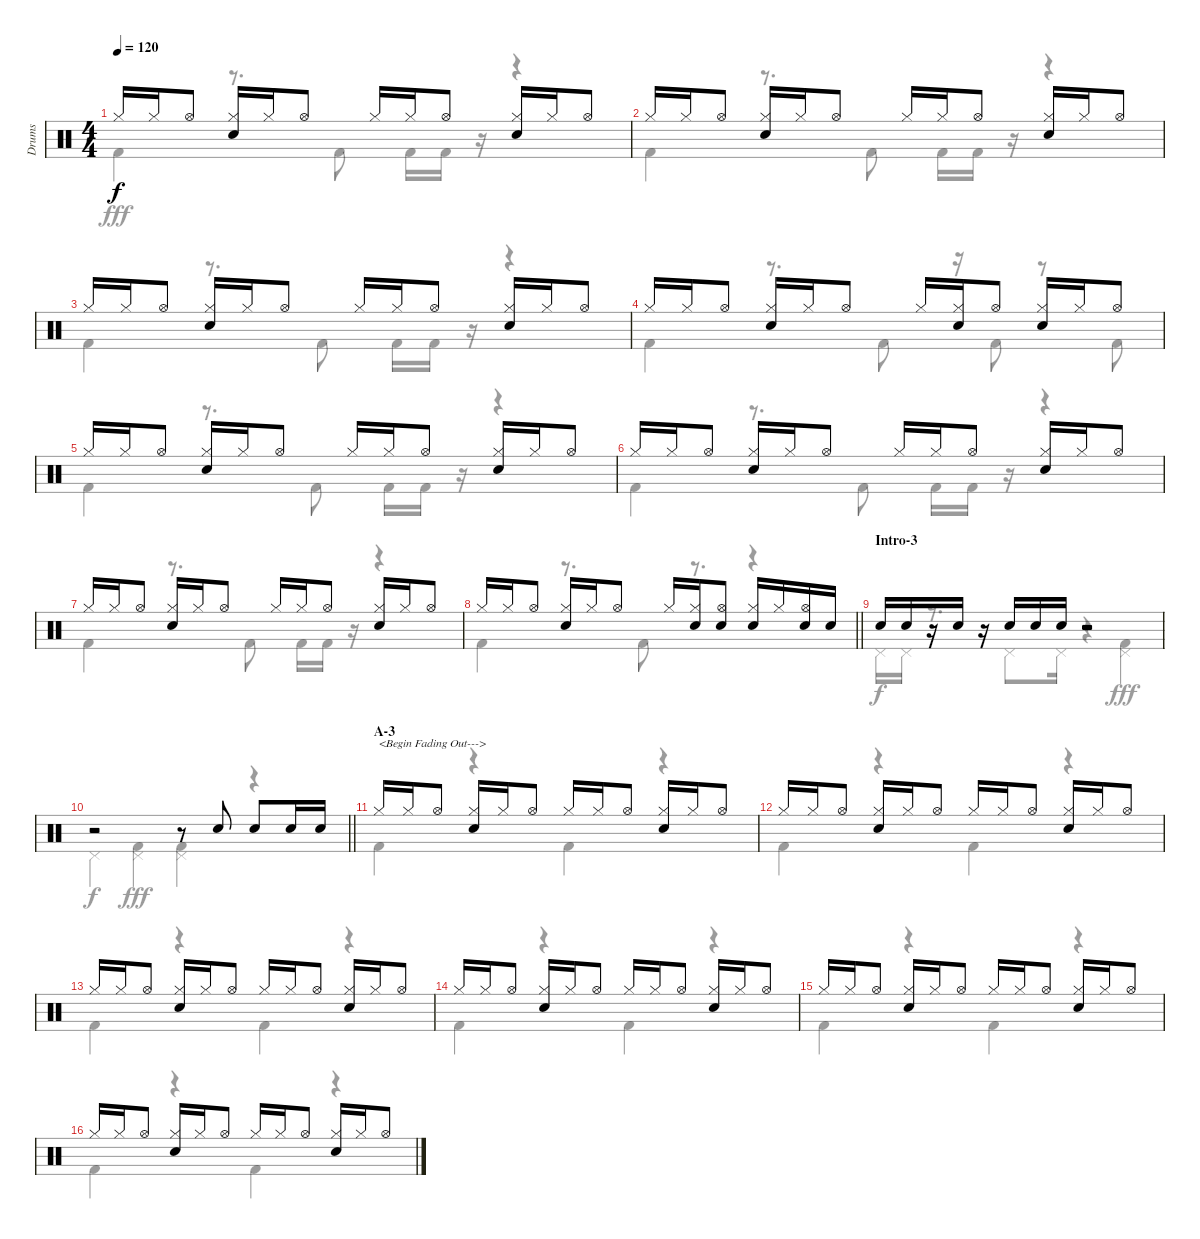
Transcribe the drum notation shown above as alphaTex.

\track ("Drums" "Drums") {instrument percussion}
\staff {score}
\articulation defaults
\voice
\ts (4 4)
\tempo 120
\clef neutral
\ks c "Hi-Hat (closed)".16{dy f} "Hi-Hat (closed)".16 "Hi-Hat (open)".8
("Hi-Hat (closed)" "Electric Snare (hit)").16 "Hi-Hat (closed)".16 "Hi-Hat (open)".8 "Hi-Hat (closed)".16 "Hi-Hat (closed)".16 "Hi-Hat (open)".8 ("Hi-Hat (closed)" "Electric Snare (hit)").16 "Hi-Hat (closed)".16 "Hi-Hat (open)".8 |
"Hi-Hat (closed)".16 "Hi-Hat (closed)".16 "Hi-Hat (open)".8 ("Hi-Hat (closed)" "Electric Snare (hit)").16 "Hi-Hat (closed)".16 "Hi-Hat (open)".8 "Hi-Hat (closed)".16 "Hi-Hat (closed)".16 "Hi-Hat (open)".8 ("Hi-Hat (closed)" "Electric Snare (hit)").16 "Hi-Hat (closed)".16 "Hi-Hat (open)".8 |
"Hi-Hat (closed)".16 "Hi-Hat (closed)".16 "Hi-Hat (open)".8 ("Hi-Hat (closed)" "Electric Snare (hit)").16 "Hi-Hat (closed)".16 "Hi-Hat (open)".8 "Hi-Hat (closed)".16 "Hi-Hat (closed)".16 "Hi-Hat (open)".8 ("Hi-Hat (closed)" "Electric Snare (hit)").16 "Hi-Hat (closed)".16 "Hi-Hat (open)".8 |
"Hi-Hat (closed)".16 "Hi-Hat (closed)".16 "Hi-Hat (open)".8 ("Hi-Hat (closed)" "Electric Snare (hit)").16 "Hi-Hat (closed)".16 "Hi-Hat (open)".8 "Hi-Hat (closed)".16 ("Hi-Hat (closed)" "Electric Snare (hit)").16 "Hi-Hat (open)".8 ("Hi-Hat (closed)" "Electric Snare (hit)").16 "Hi-Hat (closed)".16 "Hi-Hat (open)".8 |
"Hi-Hat (closed)".16 "Hi-Hat (closed)".16 "Hi-Hat (open)".8 ("Hi-Hat (closed)" "Electric Snare (hit)").16 "Hi-Hat (closed)".16 "Hi-Hat (open)".8 "Hi-Hat (closed)".16 "Hi-Hat (closed)".16 "Hi-Hat (open)".8 ("Hi-Hat (closed)" "Electric Snare (hit)").16 "Hi-Hat (closed)".16 "Hi-Hat (open)".8 |
"Hi-Hat (closed)".16 "Hi-Hat (closed)".16 "Hi-Hat (open)".8 ("Hi-Hat (closed)" "Electric Snare (hit)").16 "Hi-Hat (closed)".16 "Hi-Hat (open)".8 "Hi-Hat (closed)".16 "Hi-Hat (closed)".16 "Hi-Hat (open)".8 ("Hi-Hat (closed)" "Electric Snare (hit)").16 "Hi-Hat (closed)".16 "Hi-Hat (open)".8 |
"Hi-Hat (closed)".16 "Hi-Hat (closed)".16 "Hi-Hat (open)".8 ("Hi-Hat (closed)" "Electric Snare (hit)").16 "Hi-Hat (closed)".16 "Hi-Hat (open)".8 "Hi-Hat (closed)".16 "Hi-Hat (closed)".16 "Hi-Hat (open)".8 ("Hi-Hat (closed)" "Electric Snare (hit)").16 "Hi-Hat (closed)".16 "Hi-Hat (open)".8 |
\barLineRight lightlight "Hi-Hat (closed)".16 "Hi-Hat (closed)".16 "Hi-Hat (open)".8
("Hi-Hat (closed)" "Electric Snare (hit)").16 "Hi-Hat (closed)".16 "Hi-Hat (open)".8 "Hi-Hat (closed)".16 ("Hi-Hat (closed)" "Electric Snare (hit)").16 ("Hi-Hat (open)" "Electric Snare (hit)").8 ("Hi-Hat (closed)" "Electric Snare (hit)").16 "Hi-Hat (closed)".16 ("Hi-Hat (open)" "Electric Snare (hit)").16 "Electric Snare (hit)".16 |
\section ("" "Intro-3")
"Electric Snare (hit)".16 "Electric Snare (hit)".16 r.16 "Electric Snare (hit)".16 r.16 "Electric Snare (hit)".16 "Electric Snare (hit)".16 "Electric Snare (hit)".16 r.2 |
\barLineRight lightlight
r.2 r.8 "Electric Snare (hit)".8 "Electric Snare (hit)".8 "Electric Snare (hit)".16 "Electric Snare (hit)".16 |
\section ("" "A-3")
"Hi-Hat (closed)".16{txt "<Begin Fading Out--->"} "Hi-Hat (closed)".16 "Hi-Hat (open)".8 ("Hi-Hat (closed)" "Electric Snare (hit)").16 "Hi-Hat (closed)".16 "Hi-Hat (open)".8 "Hi-Hat (closed)".16 "Hi-Hat (closed)".16 "Hi-Hat (open)".8 ("Hi-Hat (closed)" "Electric Snare (hit)").16 "Hi-Hat (closed)".16 "Hi-Hat (open)".8 |
"Hi-Hat (closed)".16 "Hi-Hat (closed)".16 "Hi-Hat (open)".8 ("Hi-Hat (closed)" "Electric Snare (hit)").16 "Hi-Hat (closed)".16 "Hi-Hat (open)".8 "Hi-Hat (closed)".16 "Hi-Hat (closed)".16 "Hi-Hat (open)".8 ("Hi-Hat (closed)" "Electric Snare (hit)").16 "Hi-Hat (closed)".16 "Hi-Hat (open)".8 |
"Hi-Hat (closed)".16 "Hi-Hat (closed)".16 "Hi-Hat (open)".8 ("Hi-Hat (closed)" "Electric Snare (hit)").16 "Hi-Hat (closed)".16 "Hi-Hat (open)".8 "Hi-Hat (closed)".16 "Hi-Hat (closed)".16 "Hi-Hat (open)".8 ("Hi-Hat (closed)" "Electric Snare (hit)").16 "Hi-Hat (closed)".16 "Hi-Hat (open)".8 |
"Hi-Hat (closed)".16 "Hi-Hat (closed)".16 "Hi-Hat (open)".8 ("Hi-Hat (closed)" "Electric Snare (hit)").16 "Hi-Hat (closed)".16 "Hi-Hat (open)".8 "Hi-Hat (closed)".16 "Hi-Hat (closed)".16 "Hi-Hat (open)".8 ("Hi-Hat (closed)" "Electric Snare (hit)").16 "Hi-Hat (closed)".16 "Hi-Hat (open)".8 |
"Hi-Hat (closed)".16 "Hi-Hat (closed)".16 "Hi-Hat (open)".8 ("Hi-Hat (closed)" "Electric Snare (hit)").16 "Hi-Hat (closed)".16 "Hi-Hat (open)".8 "Hi-Hat (closed)".16 "Hi-Hat (closed)".16 "Hi-Hat (open)".8 ("Hi-Hat (closed)" "Electric Snare (hit)").16 "Hi-Hat (closed)".16 "Hi-Hat (open)".8 |
"Hi-Hat (closed)".16 "Hi-Hat (closed)".16 "Hi-Hat (open)".8 ("Hi-Hat (closed)" "Electric Snare (hit)").16 "Hi-Hat (closed)".16 "Hi-Hat (open)".8 "Hi-Hat (closed)".16 "Hi-Hat (closed)".16 "Hi-Hat (open)".8 ("Hi-Hat (closed)" "Electric Snare (hit)").16 "Hi-Hat (closed)".16 "Hi-Hat (open)".8
\voice
\clef neutral
\ottava regular
\simile none
\ks c "Kick (hit) 2".4{dy fff}
r.8{d} "Kick (hit) 2".8 "Kick (hit) 2".16 "Kick (hit) 2".16 r.16 r.4 |
"Kick (hit) 2".4 r.8{d} "Kick (hit) 2".8 "Kick (hit) 2".16 "Kick (hit) 2".16 r.16 r.4 |
"Kick (hit) 2".4 r.8{d} "Kick (hit) 2".8 "Kick (hit) 2".16 "Kick (hit) 2".16 r.16 r.4 |
"Kick (hit) 2".4 r.8{d} "Kick (hit) 2".8 r.16 "Kick (hit) 2".8 r.8 "Kick (hit) 2".8 |
"Kick (hit) 2".4 r.8{d} "Kick (hit) 2".8 "Kick (hit) 2".16 "Kick (hit) 2".16 r.16 r.4 |
"Kick (hit) 2".4 r.8{d} "Kick (hit) 2".8 "Kick (hit) 2".16 "Kick (hit) 2".16 r.16 r.4 |
"Kick (hit) 2".4 r.8{d} "Kick (hit) 2".8 "Kick (hit) 2".16 "Kick (hit) 2".16 r.16 r.4 |
\barLineRight lightlight "Kick (hit) 2".4
r.8{d} "Kick (hit) 2".8 r.8{d} r.4 |
"Pedal Hi-Hat (hit)".16{dy f} "Pedal Hi-Hat (hit)".16 r.8{d} "Pedal Hi-Hat (hit)".8 "Pedal Hi-Hat (hit)".16 r.4 ("Pedal Hi-Hat (hit)" "Kick (hit) 2").4{dy fff} |
\barLineRight lightlight "Pedal Hi-Hat (hit)".4{dy f}
("Pedal Hi-Hat (hit)" "Kick (hit) 2").4{dy fff} ("Pedal Hi-Hat (hit)" "Kick (hit) 2").4 r.4 |
"Kick (hit) 2".4 r.4 "Kick (hit) 2".4 r.4 |
"Kick (hit) 2".4 r.4 "Kick (hit) 2".4 r.4 |
"Kick (hit) 2".4 r.4 "Kick (hit) 2".4 r.4 |
"Kick (hit) 2".4 r.4 "Kick (hit) 2".4 r.4 |
"Kick (hit) 2".4 r.4 "Kick (hit) 2".4 r.4 |
"Kick (hit) 2".4 r.4 "Kick (hit) 2".4 r.4
